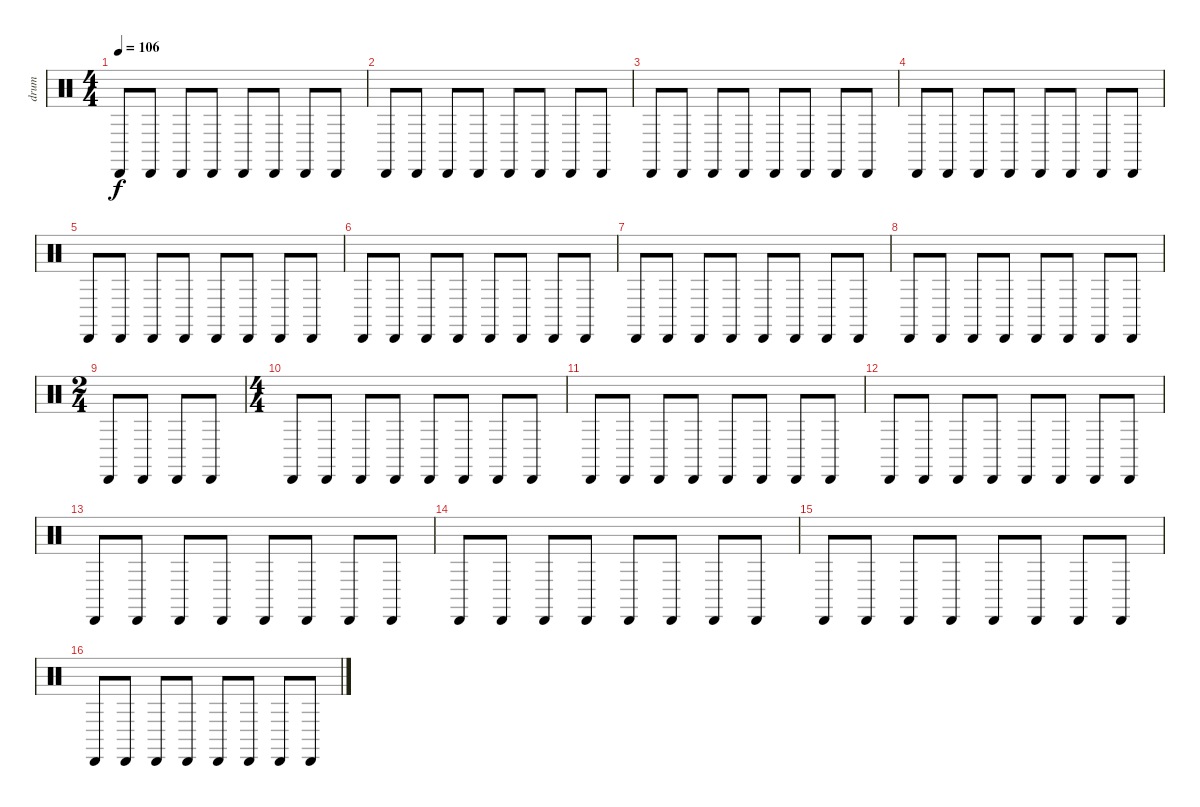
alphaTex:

\track ("drum" "drum") {instrument percussion}
\staff {score}
\articulation defaults
\ts (4 4)
\tempo 106
\clef neutral
\ks c "Cabasa (hit)".8{dy f} "Cabasa (hit)".8 "Cabasa (hit)".8 "Cabasa (hit)".8 "Cabasa (hit)".8 "Cabasa (hit)".8 "Cabasa (hit)".8 "Cabasa (hit)".8
|
"Cabasa (hit)".8 "Cabasa (hit)".8 "Cabasa (hit)".8 "Cabasa (hit)".8 "Cabasa (hit)".8 "Cabasa (hit)".8 "Cabasa (hit)".8 "Cabasa (hit)".8 |
"Cabasa (hit)".8 "Cabasa (hit)".8 "Cabasa (hit)".8 "Cabasa (hit)".8 "Cabasa (hit)".8 "Cabasa (hit)".8 "Cabasa (hit)".8 "Cabasa (hit)".8 |
"Cabasa (hit)".8 "Cabasa (hit)".8 "Cabasa (hit)".8 "Cabasa (hit)".8 "Cabasa (hit)".8 "Cabasa (hit)".8 "Cabasa (hit)".8 "Cabasa (hit)".8 |
"Cabasa (hit)".8 "Cabasa (hit)".8 "Cabasa (hit)".8 "Cabasa (hit)".8 "Cabasa (hit)".8 "Cabasa (hit)".8 "Cabasa (hit)".8 "Cabasa (hit)".8 |
"Cabasa (hit)".8 "Cabasa (hit)".8 "Cabasa (hit)".8 "Cabasa (hit)".8 "Cabasa (hit)".8 "Cabasa (hit)".8 "Cabasa (hit)".8 "Cabasa (hit)".8 |
"Cabasa (hit)".8 "Cabasa (hit)".8 "Cabasa (hit)".8 "Cabasa (hit)".8 "Cabasa (hit)".8 "Cabasa (hit)".8 "Cabasa (hit)".8 "Cabasa (hit)".8 |
"Cabasa (hit)".8 "Cabasa (hit)".8 "Cabasa (hit)".8 "Cabasa (hit)".8 "Cabasa (hit)".8 "Cabasa (hit)".8 "Cabasa (hit)".8 "Cabasa (hit)".8 |
\ts (2 4)
"Cabasa (hit)".8 "Cabasa (hit)".8 "Cabasa (hit)".8 "Cabasa (hit)".8 |
\ts (4 4)
"Cabasa (hit)".8 "Cabasa (hit)".8 "Cabasa (hit)".8 "Cabasa (hit)".8 "Cabasa (hit)".8 "Cabasa (hit)".8 "Cabasa (hit)".8 "Cabasa (hit)".8 |
"Cabasa (hit)".8 "Cabasa (hit)".8 "Cabasa (hit)".8 "Cabasa (hit)".8 "Cabasa (hit)".8 "Cabasa (hit)".8 "Cabasa (hit)".8 "Cabasa (hit)".8 |
"Cabasa (hit)".8 "Cabasa (hit)".8 "Cabasa (hit)".8 "Cabasa (hit)".8 "Cabasa (hit)".8 "Cabasa (hit)".8 "Cabasa (hit)".8 "Cabasa (hit)".8 |
"Cabasa (hit)".8 "Cabasa (hit)".8 "Cabasa (hit)".8 "Cabasa (hit)".8 "Cabasa (hit)".8 "Cabasa (hit)".8 "Cabasa (hit)".8 "Cabasa (hit)".8 |
"Cabasa (hit)".8 "Cabasa (hit)".8 "Cabasa (hit)".8 "Cabasa (hit)".8 "Cabasa (hit)".8 "Cabasa (hit)".8 "Cabasa (hit)".8 "Cabasa (hit)".8 |
"Cabasa (hit)".8 "Cabasa (hit)".8 "Cabasa (hit)".8 "Cabasa (hit)".8 "Cabasa (hit)".8 "Cabasa (hit)".8 "Cabasa (hit)".8 "Cabasa (hit)".8 |
"Cabasa (hit)".8 "Cabasa (hit)".8 "Cabasa (hit)".8 "Cabasa (hit)".8 "Cabasa (hit)".8 "Cabasa (hit)".8 "Cabasa (hit)".8 "Cabasa (hit)".8
